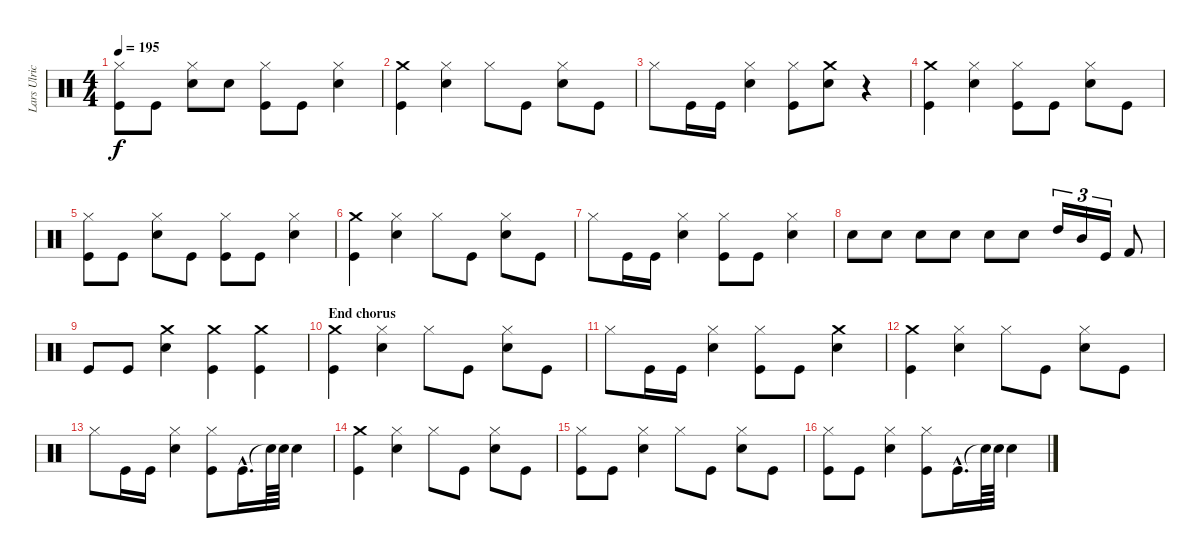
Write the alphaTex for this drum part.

\track ("Lars Ulrich (Drums)" "Lars Ulric") {instrument percussion}
\staff {score}
\articulation defaults
\ts (4 4)
\tempo 195
\clef neutral
\ks c
("Kick (hit)" "Hi-Hat (closed)").8{dy f} "Kick (hit)".8 ("Snare (hit) 2" "Hi-Hat (closed)").8 "Snare (hit) 2".8 ("Kick (hit)" "Hi-Hat (closed)").8 "Kick (hit)".8 ("Snare (hit) 2" "Hi-Hat (closed)").4 |
("Kick (hit)" "Crash medium (hit)").4 ("Hi-Hat (closed)" "Snare (hit) 2").4 "Hi-Hat (closed)".8 "Kick (hit)".8 ("Snare (hit) 2" "Hi-Hat (closed)").8 "Kick (hit)".8 |
"Hi-Hat (closed)".8 "Kick (hit)".16 "Kick (hit)".16 ("Snare (hit) 2" "Hi-Hat (closed)").4 ("Kick (hit)" "Hi-Hat (closed)").8 ("Crash medium (hit)" "Snare (hit) 2").8 r.4 |
("Kick (hit)" "Crash medium (hit)").4 ("Hi-Hat (closed)" "Snare (hit) 2").4 ("Kick (hit)" "Hi-Hat (closed)").8 "Kick (hit)".8 ("Snare (hit) 2" "Hi-Hat (closed)").8 "Kick (hit)".8 |
("Hi-Hat (closed)" "Kick (hit)").8 "Kick (hit)".8 ("Snare (hit) 2" "Hi-Hat (closed)").8 "Kick (hit)".8 ("Hi-Hat (closed)" "Kick (hit)").8 "Kick (hit)".8 ("Snare (hit) 2" "Hi-Hat (closed)").4 |
("Kick (hit)" "Crash medium (hit)").4 ("Hi-Hat (closed)" "Snare (hit) 2").4 "Hi-Hat (closed)".8 "Kick (hit)".8 ("Snare (hit) 2" "Hi-Hat (closed)").8 "Kick (hit)".8 |
"Hi-Hat (closed)".8 "Kick (hit)".16 "Kick (hit)".16 ("Snare (hit) 2" "Hi-Hat (closed)").4 ("Kick (hit)" "Hi-Hat (closed)").8 "Kick (hit)".8 ("Snare (hit) 2" "Hi-Hat (closed)").4 |
"Snare (hit) 2".8 "Snare (hit) 2".8 "Snare (hit) 2".8 "Snare (hit) 2".8 "Snare (hit) 2".8 "Snare (hit) 2".8 "High Tom (hit)".16{tu (3 2)} "Mid Tom (hit)".16{tu (3 2)} "Kick (hit)".16{tu (3 2)} "Kick (hit) 2".8 |
"Kick (hit)".8 "Kick (hit)".8 ("Crash medium (hit)" "Snare (hit) 2").4 ("Crash medium (hit)" "Kick (hit)").4 ("Crash medium (hit)" "Kick (hit)").4 |
\section ("" "End chorus")
("Kick (hit)" "Crash medium (hit)").4 ("Hi-Hat (closed)" "Snare (hit) 2").4 "Hi-Hat (closed)".8 "Kick (hit)".8 ("Snare (hit) 2" "Hi-Hat (closed)").8 "Kick (hit)".8 |
"Hi-Hat (closed)".8 "Kick (hit)".16 "Kick (hit)".16 ("Snare (hit) 2" "Hi-Hat (closed)").4 ("Kick (hit)" "Hi-Hat (closed)").8 "Kick (hit)".8 ("Crash medium (hit)" "Snare (hit) 2").4 |
("Kick (hit)" "Crash medium (hit)").4 ("Hi-Hat (closed)" "Snare (hit) 2").4 "Hi-Hat (closed)".8 "Kick (hit)".8 ("Snare (hit) 2" "Hi-Hat (closed)").8 "Kick (hit)".8 |
"Hi-Hat (closed)".8 "Kick (hit)".16 "Kick (hit)".16 ("Snare (hit) 2" "Hi-Hat (closed)").4 ("Kick (hit)" "Hi-Hat (closed)").8 "Kick (hit)"{hac}.16{d} "Snare (hit)"{t}.64 "Snare (hit) 2".64 "Snare (hit) 2".4 |
("Kick (hit)" "Crash medium (hit)").4 ("Snare (hit) 2" "Hi-Hat (closed)").4 "Hi-Hat (closed)".8 "Kick (hit)".8 ("Snare (hit) 2" "Hi-Hat (closed)").8 "Kick (hit)".8 |
("Kick (hit)" "Hi-Hat (closed)").8 "Kick (hit)".8 ("Snare (hit) 2" "Hi-Hat (closed)").4 "Hi-Hat (closed)".8 "Kick (hit)".8 ("Snare (hit) 2" "Hi-Hat (closed)").8 "Kick (hit)".8 |
("Hi-Hat (closed)" "Kick (hit)").8 "Kick (hit)".8 ("Snare (hit) 2" "Hi-Hat (closed)").4 ("Hi-Hat (closed)" "Kick (hit)").8 "Kick (hit)"{hac}.16{d} "Snare (hit)"{t}.64 "Snare (hit) 2".64 "Snare (hit) 2".4
